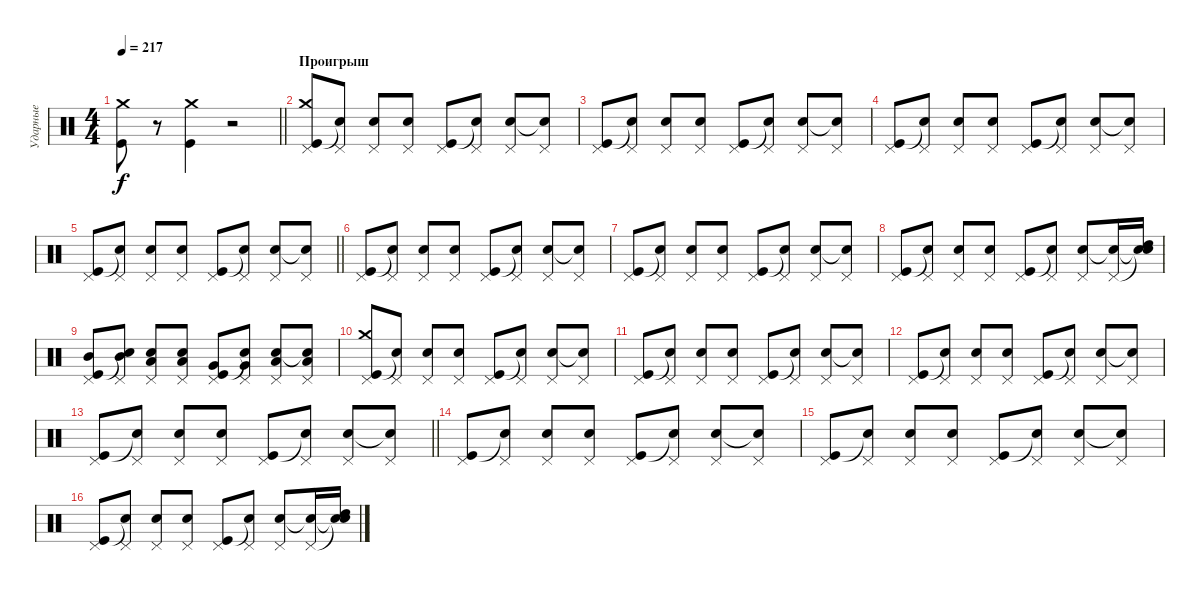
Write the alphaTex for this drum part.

\track ("Ударные" "Ударные") {instrument percussion}
\staff {score}
\articulation defaults
\ts (4 4)
\tempo 217
\clef neutral
\barLineRight lightlight
\ks c
("Kick (hit)" "Crash medium (hit)").8{dy f} r.8 ("Kick (hit)" "Crash medium (hit)").4 r.2 |
\section ("" "Проигрыш")
("Pedal Hi-Hat (hit)" "Kick (hit)" "Crash medium (hit)").8 ("Pedal Hi-Hat (hit)" "Snare (hit)"{t}).8 ("Pedal Hi-Hat (hit)" "Snare (hit) 2").8 ("Pedal Hi-Hat (hit)" "Snare (hit) 2").8 ("Pedal Hi-Hat (hit)" "Kick (hit)").8 ("Pedal Hi-Hat (hit)" "Snare (hit)"{t}).8 ("Pedal Hi-Hat (hit)" "Snare (hit) 2").8 ("Pedal Hi-Hat (hit)" "Snare (hit)"{t}).8 |
("Pedal Hi-Hat (hit)" "Kick (hit)").8 ("Pedal Hi-Hat (hit)" "Snare (hit)"{t}).8 ("Pedal Hi-Hat (hit)" "Snare (hit) 2").8 ("Pedal Hi-Hat (hit)" "Snare (hit) 2").8 ("Pedal Hi-Hat (hit)" "Kick (hit)").8 ("Pedal Hi-Hat (hit)" "Snare (hit)"{t}).8 ("Pedal Hi-Hat (hit)" "Snare (hit) 2").8 ("Pedal Hi-Hat (hit)" "Snare (hit)"{t}).8 |
("Pedal Hi-Hat (hit)" "Kick (hit)").8 ("Pedal Hi-Hat (hit)" "Snare (hit)"{t}).8 ("Pedal Hi-Hat (hit)" "Snare (hit) 2").8 ("Pedal Hi-Hat (hit)" "Snare (hit) 2").8 ("Pedal Hi-Hat (hit)" "Kick (hit)").8 ("Pedal Hi-Hat (hit)" "Snare (hit)"{t}).8 ("Pedal Hi-Hat (hit)" "Snare (hit) 2").8 ("Pedal Hi-Hat (hit)" "Snare (hit)"{t}).8 |
\barLineRight lightlight
("Pedal Hi-Hat (hit)" "Kick (hit)").8 ("Pedal Hi-Hat (hit)" "Snare (hit)"{t}).8 ("Pedal Hi-Hat (hit)" "Snare (hit) 2").8 ("Pedal Hi-Hat (hit)" "Snare (hit) 2").8 ("Pedal Hi-Hat (hit)" "Kick (hit)").8 ("Pedal Hi-Hat (hit)" "Snare (hit)"{t}).8 ("Pedal Hi-Hat (hit)" "Snare (hit) 2").8 ("Pedal Hi-Hat (hit)" "Snare (hit)"{t}).8 |
("Pedal Hi-Hat (hit)" "Kick (hit)").8 ("Pedal Hi-Hat (hit)" "Snare (hit)"{t}).8 ("Pedal Hi-Hat (hit)" "Snare (hit) 2").8 ("Pedal Hi-Hat (hit)" "Snare (hit) 2").8 ("Pedal Hi-Hat (hit)" "Kick (hit)").8 ("Pedal Hi-Hat (hit)" "Snare (hit)"{t}).8 ("Pedal Hi-Hat (hit)" "Snare (hit) 2").8 ("Pedal Hi-Hat (hit)" "Snare (hit)"{t}).8 |
("Pedal Hi-Hat (hit)" "Kick (hit)").8 ("Pedal Hi-Hat (hit)" "Snare (hit)"{t}).8 ("Pedal Hi-Hat (hit)" "Snare (hit) 2").8 ("Pedal Hi-Hat (hit)" "Snare (hit) 2").8 ("Pedal Hi-Hat (hit)" "Kick (hit)").8 ("Pedal Hi-Hat (hit)" "Snare (hit)"{t}).8 ("Pedal Hi-Hat (hit)" "Snare (hit) 2").8 ("Pedal Hi-Hat (hit)" "Snare (hit)"{t}).8 |
("Pedal Hi-Hat (hit)" "Kick (hit)").8 ("Pedal Hi-Hat (hit)" "Snare (hit)"{t}).8 ("Pedal Hi-Hat (hit)" "Snare (hit) 2").8 ("Pedal Hi-Hat (hit)" "Snare (hit) 2").8 ("Pedal Hi-Hat (hit)" "Kick (hit)").8 ("Pedal Hi-Hat (hit)" "Snare (hit)"{t}).8 ("Pedal Hi-Hat (hit)" "Snare (hit) 2").8 ("Pedal Hi-Hat (hit)" "Snare (hit)"{t}).16 ("Snare (hit)"{t} "Snare (hit)"{t} "High Tom (hit)").16 |
("Pedal Hi-Hat (hit)" "Kick (hit)" "Mid Tom (hit)").8 ("Pedal Hi-Hat (hit)" "Snare (hit)"{t} "Mid Tom (hit)").8 ("Pedal Hi-Hat (hit)" "Snare (hit) 2" "Low Tom (hit)").8 ("Pedal Hi-Hat (hit)" "Snare (hit) 2" "Low Tom (hit)").8 ("Pedal Hi-Hat (hit)" "Kick (hit)" "Very Low Tom (hit)").8 ("Pedal Hi-Hat (hit)" "Snare (hit)"{t} "Very Low Tom (hit)").8 ("Pedal Hi-Hat (hit)" "Snare (hit) 2" "Low Floor Tom (hit)").8 ("Pedal Hi-Hat (hit)" "Snare (hit)"{t} "Low Floor Tom (hit)").8 |
("Pedal Hi-Hat (hit)" "Kick (hit)" "Crash medium (hit)").8 ("Pedal Hi-Hat (hit)" "Snare (hit)"{t}).8 ("Pedal Hi-Hat (hit)" "Snare (hit) 2").8 ("Pedal Hi-Hat (hit)" "Snare (hit) 2").8 ("Pedal Hi-Hat (hit)" "Kick (hit)").8 ("Pedal Hi-Hat (hit)" "Snare (hit)"{t}).8 ("Pedal Hi-Hat (hit)" "Snare (hit) 2").8 ("Pedal Hi-Hat (hit)" "Snare (hit)"{t}).8 |
("Pedal Hi-Hat (hit)" "Kick (hit)").8 ("Pedal Hi-Hat (hit)" "Snare (hit)"{t}).8 ("Pedal Hi-Hat (hit)" "Snare (hit) 2").8 ("Pedal Hi-Hat (hit)" "Snare (hit) 2").8 ("Pedal Hi-Hat (hit)" "Kick (hit)").8 ("Pedal Hi-Hat (hit)" "Snare (hit)"{t}).8 ("Pedal Hi-Hat (hit)" "Snare (hit) 2").8 ("Pedal Hi-Hat (hit)" "Snare (hit)"{t}).8 |
("Pedal Hi-Hat (hit)" "Kick (hit)").8 ("Pedal Hi-Hat (hit)" "Snare (hit)"{t}).8 ("Pedal Hi-Hat (hit)" "Snare (hit) 2").8 ("Pedal Hi-Hat (hit)" "Snare (hit) 2").8 ("Pedal Hi-Hat (hit)" "Kick (hit)").8 ("Pedal Hi-Hat (hit)" "Snare (hit)"{t}).8 ("Pedal Hi-Hat (hit)" "Snare (hit) 2").8 ("Pedal Hi-Hat (hit)" "Snare (hit)"{t}).8 |
\barLineRight lightlight
("Pedal Hi-Hat (hit)" "Kick (hit)").8 ("Pedal Hi-Hat (hit)" "Snare (hit)"{t}).8 ("Pedal Hi-Hat (hit)" "Snare (hit) 2").8 ("Pedal Hi-Hat (hit)" "Snare (hit) 2").8 ("Pedal Hi-Hat (hit)" "Kick (hit)").8 ("Pedal Hi-Hat (hit)" "Snare (hit)"{t}).8 ("Pedal Hi-Hat (hit)" "Snare (hit) 2").8 ("Pedal Hi-Hat (hit)" "Snare (hit)"{t}).8 |
("Pedal Hi-Hat (hit)" "Kick (hit)").8 ("Pedal Hi-Hat (hit)" "Snare (hit)"{t}).8 ("Pedal Hi-Hat (hit)" "Snare (hit) 2").8 ("Pedal Hi-Hat (hit)" "Snare (hit) 2").8 ("Pedal Hi-Hat (hit)" "Kick (hit)").8 ("Pedal Hi-Hat (hit)" "Snare (hit)"{t}).8 ("Pedal Hi-Hat (hit)" "Snare (hit) 2").8 ("Pedal Hi-Hat (hit)" "Snare (hit)"{t}).8 |
("Pedal Hi-Hat (hit)" "Kick (hit)").8 ("Pedal Hi-Hat (hit)" "Snare (hit)"{t}).8 ("Pedal Hi-Hat (hit)" "Snare (hit) 2").8 ("Pedal Hi-Hat (hit)" "Snare (hit) 2").8 ("Pedal Hi-Hat (hit)" "Kick (hit)").8 ("Pedal Hi-Hat (hit)" "Snare (hit)"{t}).8 ("Pedal Hi-Hat (hit)" "Snare (hit) 2").8 ("Pedal Hi-Hat (hit)" "Snare (hit)"{t}).8 |
("Pedal Hi-Hat (hit)" "Kick (hit)").8 ("Pedal Hi-Hat (hit)" "Snare (hit)"{t}).8 ("Pedal Hi-Hat (hit)" "Snare (hit) 2").8 ("Pedal Hi-Hat (hit)" "Snare (hit) 2").8 ("Pedal Hi-Hat (hit)" "Kick (hit)").8 ("Pedal Hi-Hat (hit)" "Snare (hit)"{t}).8 ("Pedal Hi-Hat (hit)" "Snare (hit) 2").8 ("Pedal Hi-Hat (hit)" "Snare (hit)"{t}).16 ("Snare (hit)"{t} "Snare (hit)"{t} "High Tom (hit)").16
